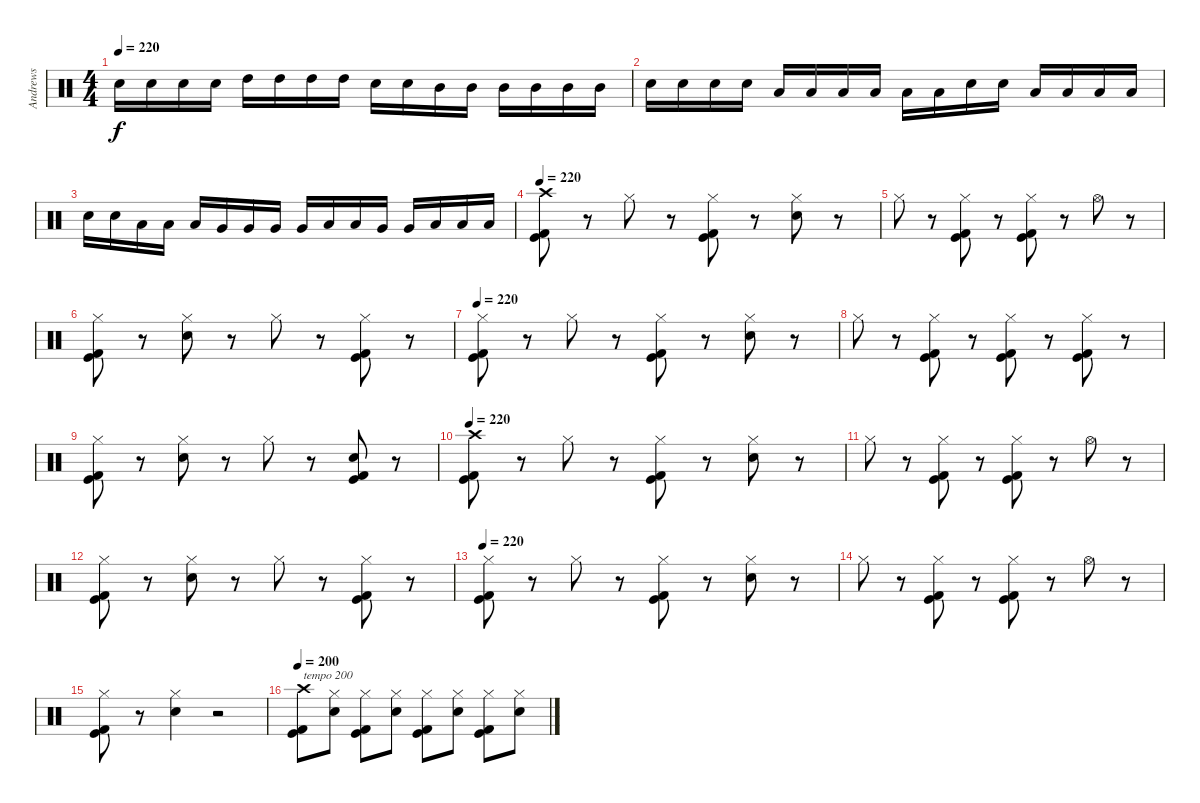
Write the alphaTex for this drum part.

\track ("Andrews" "Andrews") {instrument percussion}
\staff {score}
\articulation defaults
\ts (4 4)
\tempo 220
\clef neutral
\ks c "Electric Snare (hit)".16{dy f} "Electric Snare (hit)".16 "Electric Snare (hit)".16 "Electric Snare (hit)".16 "High Tom (hit)".16 "High Tom (hit)".16 "High Tom (hit)".16 "High Tom (hit)".16 "Electric Snare (hit)".16 "Electric Snare (hit)".16 "Mid Tom (hit)".16 "Mid Tom (hit)".16 "Mid Tom (hit)".16 "Mid Tom (hit)".16 "Mid Tom (hit)".16 "Mid Tom (hit)".16
|
"Electric Snare (hit)".16 "Electric Snare (hit)".16 "Electric Snare (hit)".16 "Electric Snare (hit)".16 "Low Tom (hit)".16 "Low Tom (hit)".16 "Low Tom (hit)".16 "Low Tom (hit)".16 "Low Tom (hit)".16 "Low Tom (hit)".16 "Electric Snare (hit)".16 "Electric Snare (hit)".16 "Low Tom (hit)".16 "Low Tom (hit)".16 "Low Tom (hit)".16 "Low Tom (hit)".16 |
"Electric Snare (hit)".16 "Electric Snare (hit)".16 "Low Tom (hit)".16 "Low Tom (hit)".16 "Low Tom (hit)".16 "Very Low Tom (hit)".16 "Very Low Tom (hit)".16 "Very Low Tom (hit)".16 "Very Low Tom (hit)".16 "Low Tom (hit)".16 "Low Tom (hit)".16 "Very Low Tom (hit)".16 "Very Low Tom (hit)".16 "Low Floor Tom (hit)".16 "Low Floor Tom (hit)".16 "Low Floor Tom (hit)".16 |
\tempo 220
("Crash high (hit)" "Kick (hit) 2" "Kick (hit)").8 r.8 "Hi-Hat (closed)".8 r.8 ("Hi-Hat (closed)" "Kick (hit) 2" "Kick (hit)").8 r.8 ("Electric Snare (hit)" "Hi-Hat (closed)").8 r.8 |
"Hi-Hat (closed)".8 r.8 ("Hi-Hat (closed)" "Kick (hit) 2" "Kick (hit)").8 r.8 ("Hi-Hat (closed)" "Kick (hit) 2" "Kick (hit)").8 r.8 "Hi-Hat (open)".8 r.8 |
("Hi-Hat (closed)" "Kick (hit) 2" "Kick (hit)").8 r.8 ("Electric Snare (hit)" "Hi-Hat (closed)").8 r.8 "Hi-Hat (closed)".8 r.8 ("Hi-Hat (closed)" "Kick (hit) 2" "Kick (hit)").8 r.8 |
\tempo 220
("Hi-Hat (closed)" "Kick (hit) 2" "Kick (hit)").8 r.8 "Hi-Hat (closed)".8 r.8 ("Hi-Hat (closed)" "Kick (hit) 2" "Kick (hit)").8 r.8 ("Electric Snare (hit)" "Hi-Hat (closed)").8 r.8 |
"Hi-Hat (closed)".8 r.8 ("Hi-Hat (closed)" "Kick (hit) 2" "Kick (hit)").8 r.8 ("Hi-Hat (closed)" "Kick (hit) 2" "Kick (hit)").8 r.8 ("Hi-Hat (closed)" "Kick (hit) 2" "Kick (hit)").8 r.8 |
("Hi-Hat (closed)" "Kick (hit) 2" "Kick (hit)").8 r.8 ("Electric Snare (hit)" "Hi-Hat (closed)").8 r.8 "Hi-Hat (closed)".8 r.8 ("Electric Snare (hit)" "Kick (hit) 2" "Kick (hit)").8 r.8 |
\tempo 220
("Crash high (hit)" "Kick (hit) 2" "Kick (hit)").8 r.8 "Hi-Hat (closed)".8 r.8 ("Hi-Hat (closed)" "Kick (hit) 2" "Kick (hit)").8 r.8 ("Electric Snare (hit)" "Hi-Hat (closed)").8 r.8 |
"Hi-Hat (closed)".8 r.8 ("Hi-Hat (closed)" "Kick (hit) 2" "Kick (hit)").8 r.8 ("Hi-Hat (closed)" "Kick (hit) 2" "Kick (hit)").8 r.8 "Hi-Hat (open)".8 r.8 |
("Hi-Hat (closed)" "Kick (hit) 2" "Kick (hit)").8 r.8 ("Electric Snare (hit)" "Hi-Hat (closed)").8 r.8 "Hi-Hat (closed)".8 r.8 ("Hi-Hat (closed)" "Kick (hit) 2" "Kick (hit)").8 r.8 |
\tempo 220
("Hi-Hat (closed)" "Kick (hit) 2" "Kick (hit)").8 r.8 "Hi-Hat (closed)".8 r.8 ("Hi-Hat (closed)" "Kick (hit) 2" "Kick (hit)").8 r.8 ("Electric Snare (hit)" "Hi-Hat (closed)").8 r.8 |
"Hi-Hat (closed)".8 r.8 ("Hi-Hat (closed)" "Kick (hit) 2" "Kick (hit)").8 r.8 ("Hi-Hat (closed)" "Kick (hit) 2" "Kick (hit)").8 r.8 "Hi-Hat (open)".8 r.8 |
("Hi-Hat (closed)" "Kick (hit) 2" "Kick (hit)").8 r.8 ("Electric Snare (hit)" "Hi-Hat (closed)").4 r.2 |
\tempo 200
("Crash high (hit)" "Kick (hit) 2" "Kick (hit)").8{txt "tempo 200"} ("Hi-Hat (closed)" "Electric Snare (hit)").8 ("Hi-Hat (closed)" "Kick (hit) 2" "Kick (hit)").8 ("Hi-Hat (closed)" "Electric Snare (hit)").8 ("Hi-Hat (closed)" "Kick (hit) 2" "Kick (hit)").8 ("Hi-Hat (closed)" "Electric Snare (hit)").8 ("Hi-Hat (closed)" "Kick (hit) 2" "Kick (hit)").8 ("Hi-Hat (closed)" "Electric Snare (hit)").8
